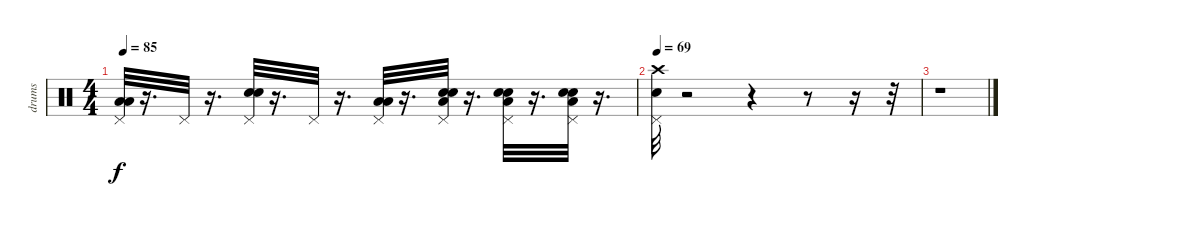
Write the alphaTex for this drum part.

\track ("drums" "drums") {instrument percussion}
\staff {score}
\articulation defaults
\ts (4 4)
\tempo 85
\clef neutral
\ks c
("Low Tom (hit)" "Low Floor Tom (hit)" "Pedal Hi-Hat (hit)").32{dy f} r.16{d} "Pedal Hi-Hat (hit)".32 r.16{d} ("Snare (hit) 2" "Electric Snare (hit)" "Pedal Hi-Hat (hit)").32 r.16{d} "Pedal Hi-Hat (hit)".32 r.16{d} ("Low Tom (hit)" "Low Floor Tom (hit)" "Pedal Hi-Hat (hit)").32 r.16{d} ("Snare (hit) 2" "Electric Snare (hit)" "Pedal Hi-Hat (hit)" "Low Tom (hit)").32 r.16{d} ("Low Tom (hit)" "Snare (hit) 2" "Electric Snare (hit)" "Pedal Hi-Hat (hit)").32 r.16{d} ("Low Tom (hit)" "Snare (hit) 2" "Electric Snare (hit)" "Pedal Hi-Hat (hit)").32 r.16{d} |
\tempo 69
("Snare (hit) 2" "Pedal Hi-Hat (hit)" "Crash high (hit)").32 r.2 r.4 r.8 r.16 r.32 |
r.1
